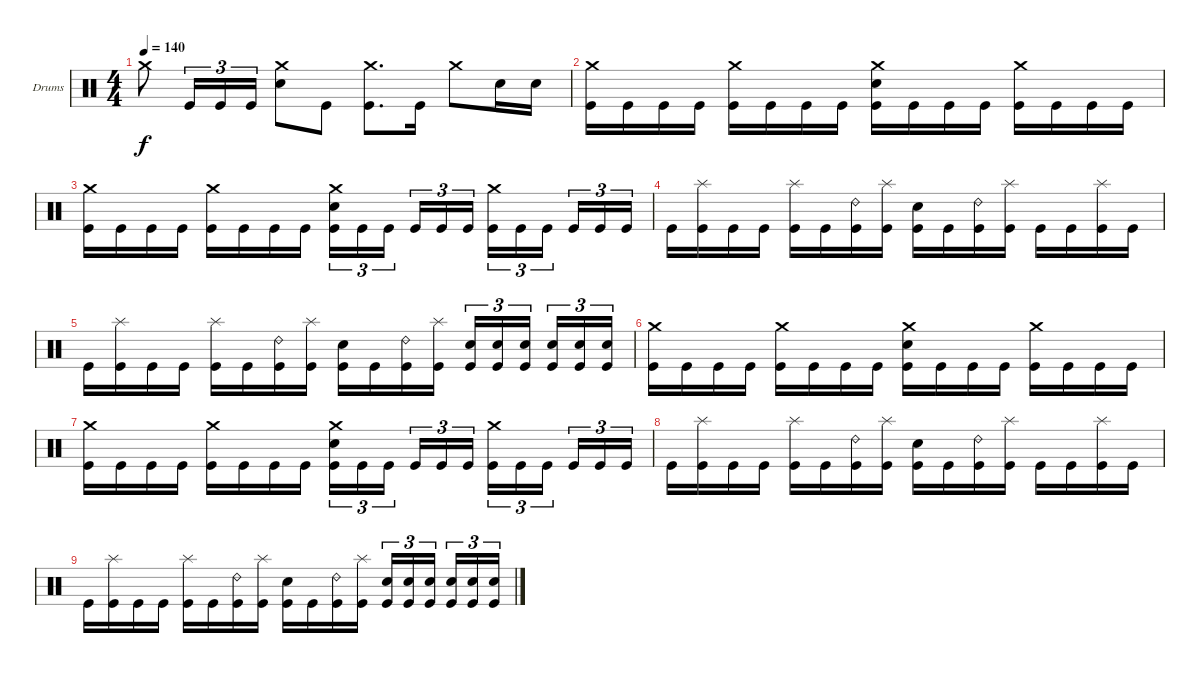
\defaultSystemsLayout 4
\bracketExtendMode groupsimilarinstruments
\firstSystemTrackNameOrientation horizontal
\otherSystemsTrackNameOrientation horizontal
\track ("Drumkit" "Drums") {instrument percussion}
\staff {score}
\articulation defaults
\ts (4 4)
\tempo 140
\clef neutral
\ks c "Crash medium (hit)".8{dy f} "Kick (hit)".16{tu (3 2)} "Kick (hit)".16{tu (3 2)} "Kick (hit)".16{tu (3 2)}
("Crash medium (hit)" "Snare (hit) 2").8 "Kick (hit)".8 ("Crash medium (hit)" "Kick (hit)").8{d} "Kick (hit)".16 "Crash medium (hit)".8 "Snare (hit) 2".16 "Snare (hit) 2".16 |
("Crash medium (hit)" "Kick (hit)").16 "Kick (hit)".16 "Kick (hit)".16 "Kick (hit)".16 ("Crash medium (hit)" "Kick (hit)").16 "Kick (hit)".16 "Kick (hit)".16 "Kick (hit)".16 ("Crash medium (hit)" "Snare (hit) 2" "Kick (hit)").16 "Kick (hit)".16 "Kick (hit)".16 "Kick (hit)".16 ("Crash medium (hit)" "Kick (hit)").16 "Kick (hit)".16 "Kick (hit)".16 "Kick (hit)".16 |
("Crash medium (hit)" "Kick (hit)").16 "Kick (hit)".16 "Kick (hit)".16 "Kick (hit)".16 ("Crash medium (hit)" "Kick (hit)").16 "Kick (hit)".16 "Kick (hit)".16 "Kick (hit)".16 ("Crash medium (hit)" "Snare (hit) 2" "Kick (hit)").16{tu (3 2)} "Kick (hit)".16{tu (3 2)} "Kick (hit)".16{tu (3 2)} "Kick (hit)".16{tu (3 2)} "Kick (hit)".16{tu (3 2)} "Kick (hit)".16{tu (3 2)} ("Crash medium (hit)" "Kick (hit)").16{tu (3 2)} "Kick (hit)".16{tu (3 2)} "Kick (hit)".16{tu (3 2)} "Kick (hit)".16{tu (3 2)} "Kick (hit)".16{tu (3 2)} "Kick (hit)".16{tu (3 2)} |
"Kick (hit)".16 ("Splash (hit)" "Kick (hit)").16 "Kick (hit)".16 "Kick (hit)".16 ("Splash (hit)" "Kick (hit)").16 "Kick (hit)".16 ("Ride (bell) 2" "Kick (hit)").16 ("Splash (hit)" "Kick (hit)").16 ("Snare (hit) 2" "Kick (hit)").16 "Kick (hit)".16 ("Ride (bell) 2" "Kick (hit)").16 ("Splash (hit)" "Kick (hit)").16 "Kick (hit)".16 "Kick (hit)".16 ("Splash (hit)" "Kick (hit)").16 "Kick (hit)".16 |
"Kick (hit)".16 ("Splash (hit)" "Kick (hit)").16 "Kick (hit)".16 "Kick (hit)".16 ("Splash (hit)" "Kick (hit)").16 "Kick (hit)".16 ("Ride (bell) 2" "Kick (hit)").16 ("Splash (hit)" "Kick (hit)").16 ("Snare (hit) 2" "Kick (hit)").16 "Kick (hit)".16 ("Ride (bell) 2" "Kick (hit)").16 ("Splash (hit)" "Kick (hit)").16 ("Snare (hit) 2" "Kick (hit)").16{tu (3 2)} ("Snare (hit) 2" "Kick (hit)").16{tu (3 2)} ("Snare (hit) 2" "Kick (hit)").16{tu (3 2)} ("Snare (hit) 2" "Kick (hit)").16{tu (3 2)} ("Snare (hit) 2" "Kick (hit)").16{tu (3 2)} ("Snare (hit) 2" "Kick (hit)").16{tu (3 2)} |
("Crash medium (hit)" "Kick (hit)").16 "Kick (hit)".16 "Kick (hit)".16 "Kick (hit)".16 ("Crash medium (hit)" "Kick (hit)").16 "Kick (hit)".16 "Kick (hit)".16 "Kick (hit)".16 ("Crash medium (hit)" "Snare (hit) 2" "Kick (hit)").16 "Kick (hit)".16 "Kick (hit)".16 "Kick (hit)".16 ("Crash medium (hit)" "Kick (hit)").16 "Kick (hit)".16 "Kick (hit)".16 "Kick (hit)".16 |
("Crash medium (hit)" "Kick (hit)").16 "Kick (hit)".16 "Kick (hit)".16 "Kick (hit)".16 ("Crash medium (hit)" "Kick (hit)").16 "Kick (hit)".16 "Kick (hit)".16 "Kick (hit)".16 ("Crash medium (hit)" "Snare (hit) 2" "Kick (hit)").16{tu (3 2)} "Kick (hit)".16{tu (3 2)} "Kick (hit)".16{tu (3 2)} "Kick (hit)".16{tu (3 2)} "Kick (hit)".16{tu (3 2)} "Kick (hit)".16{tu (3 2)} ("Crash medium (hit)" "Kick (hit)").16{tu (3 2)} "Kick (hit)".16{tu (3 2)} "Kick (hit)".16{tu (3 2)} "Kick (hit)".16{tu (3 2)} "Kick (hit)".16{tu (3 2)} "Kick (hit)".16{tu (3 2)} |
"Kick (hit)".16 ("Splash (hit)" "Kick (hit)").16 "Kick (hit)".16 "Kick (hit)".16 ("Splash (hit)" "Kick (hit)").16 "Kick (hit)".16 ("Ride (bell) 2" "Kick (hit)").16 ("Splash (hit)" "Kick (hit)").16 ("Snare (hit) 2" "Kick (hit)").16 "Kick (hit)".16 ("Ride (bell) 2" "Kick (hit)").16 ("Splash (hit)" "Kick (hit)").16 "Kick (hit)".16 "Kick (hit)".16 ("Splash (hit)" "Kick (hit)").16 "Kick (hit)".16 |
"Kick (hit)".16 ("Splash (hit)" "Kick (hit)").16 "Kick (hit)".16 "Kick (hit)".16 ("Splash (hit)" "Kick (hit)").16 "Kick (hit)".16 ("Ride (bell) 2" "Kick (hit)").16 ("Splash (hit)" "Kick (hit)").16 ("Snare (hit) 2" "Kick (hit)").16 "Kick (hit)".16 ("Ride (bell) 2" "Kick (hit)").16 ("Splash (hit)" "Kick (hit)").16 ("Snare (hit) 2" "Kick (hit)").16{tu (3 2)} ("Snare (hit) 2" "Kick (hit)").16{tu (3 2)} ("Snare (hit) 2" "Kick (hit)").16{tu (3 2)} ("Snare (hit) 2" "Kick (hit)").16{tu (3 2)} ("Snare (hit) 2" "Kick (hit)").16{tu (3 2)} ("Snare (hit) 2" "Kick (hit)").16{tu (3 2)}
